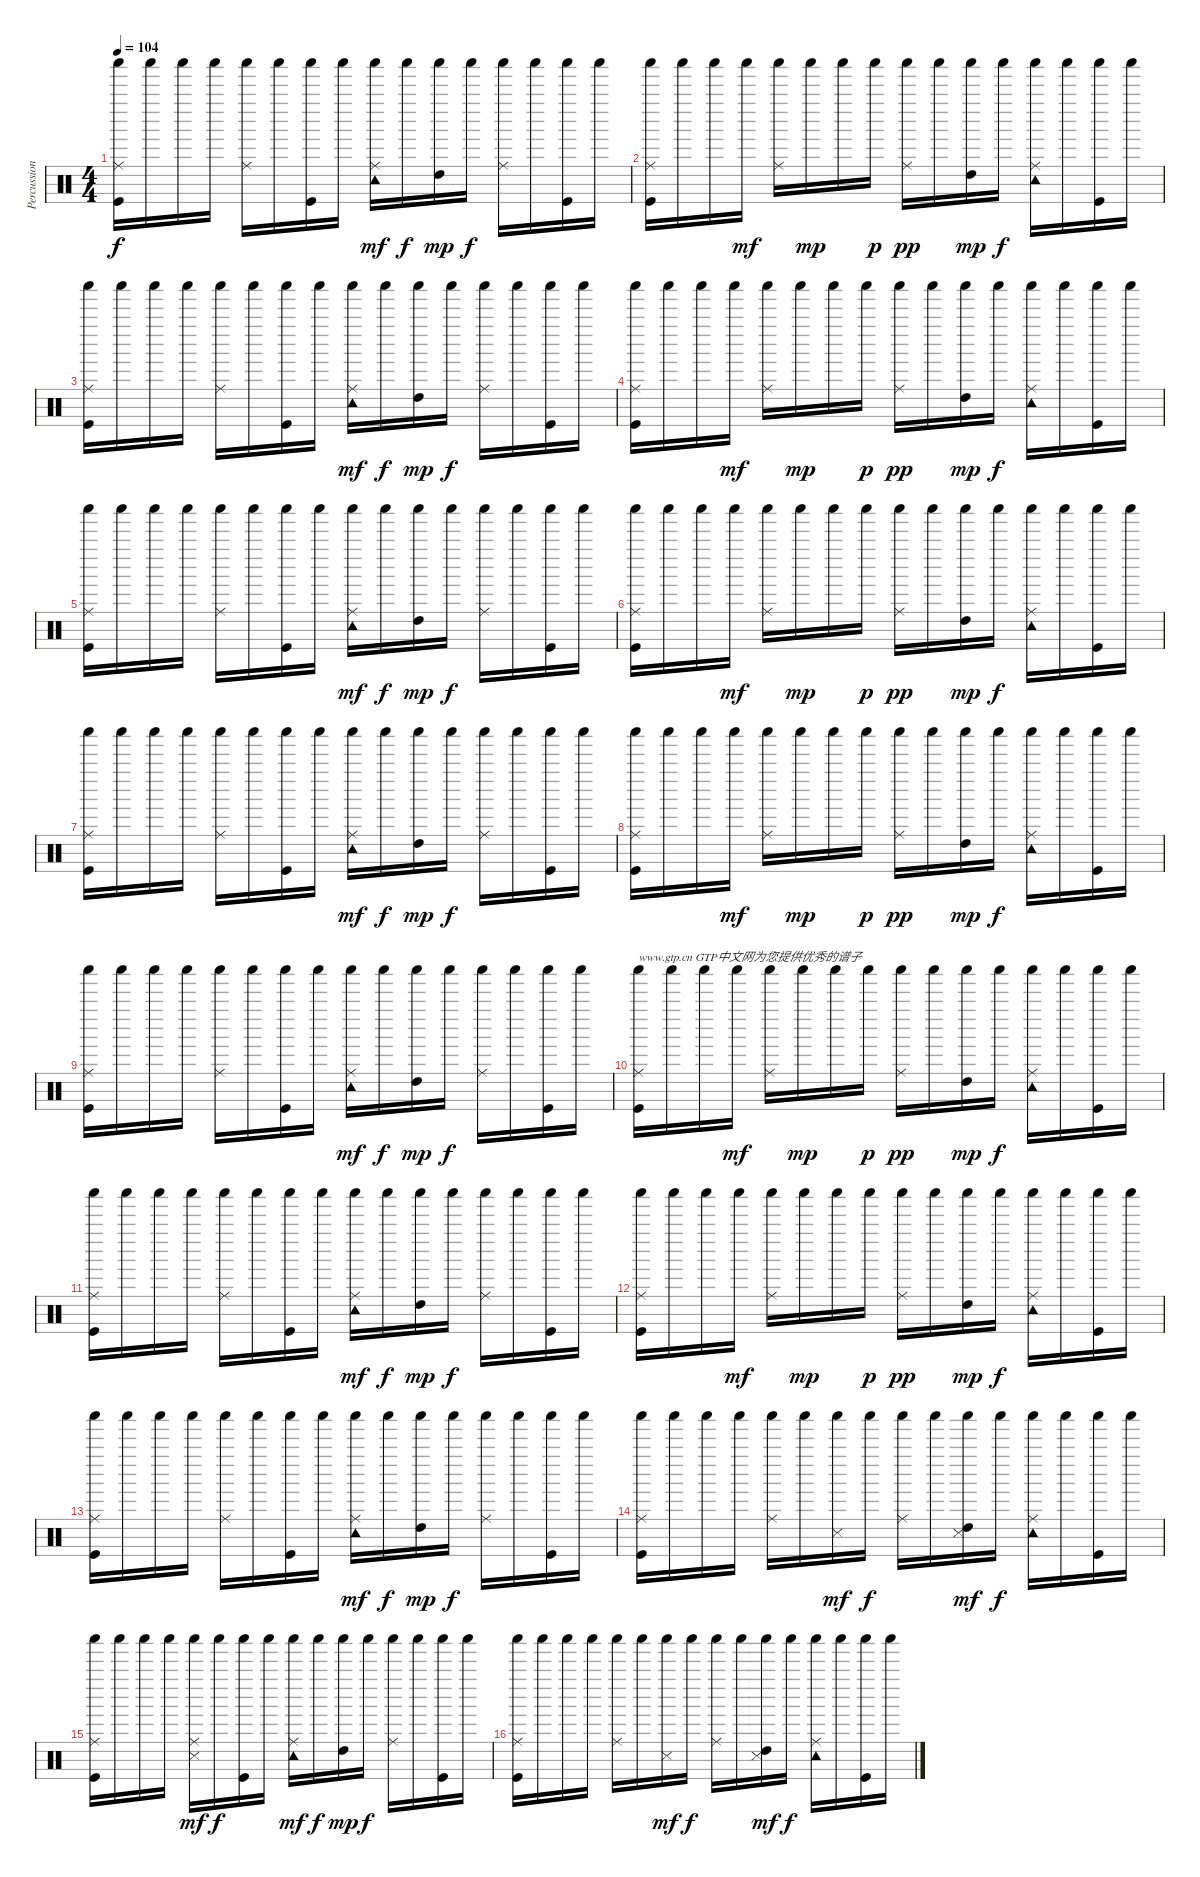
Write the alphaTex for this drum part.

\track ("Percussioni" "Percussion") {instrument percussion}
\staff {score}
\articulation defaults
\ts (4 4)
\tempo 104
\clef neutral
\ks c
("Ride (middle)" "Shaker (hit)" "Kick (hit)").16{dy f} "Shaker (hit)".16 "Shaker (hit)".16 "Shaker (hit)".16 ("Ride (middle)" "Shaker (hit)").16 "Shaker (hit)".16 ("Shaker (hit)" "Kick (hit)").16 "Shaker (hit)".16 ("Ride (middle)" "Shaker (hit)" "Tambourine (hit)").16{dy mf} "Shaker (hit)".16{dy f} ("High Tom (hit)" "Shaker (hit)").16{dy mp} "Shaker (hit)".16{dy f} ("Ride (middle)" "Shaker (hit)").16 "Shaker (hit)".16 ("Shaker (hit)" "Kick (hit)").16 "Shaker (hit)".16 |
("Ride (middle)" "Shaker (hit)" "Kick (hit)").16 "Shaker (hit)".16 "Shaker (hit)".16 "Shaker (hit)".16{dy mf} ("Ride (middle)" "Shaker (hit)").16 "Shaker (hit)".16{dy mp} "Shaker (hit)".16 "Shaker (hit)".16{dy p} ("Ride (middle)" "Shaker (hit)").16{dy pp} "Shaker (hit)".16 ("High Tom (hit)" "Shaker (hit)").16{dy mp} "Shaker (hit)".16{dy f} ("Ride (middle)" "Shaker (hit)" "Tambourine (hit)").16 "Shaker (hit)".16 ("Shaker (hit)" "Kick (hit)").16 "Shaker (hit)".16 |
("Ride (middle)" "Shaker (hit)" "Kick (hit)").16 "Shaker (hit)".16 "Shaker (hit)".16 "Shaker (hit)".16 ("Ride (middle)" "Shaker (hit)").16 "Shaker (hit)".16 ("Shaker (hit)" "Kick (hit)").16 "Shaker (hit)".16 ("Ride (middle)" "Shaker (hit)" "Tambourine (hit)").16{dy mf} "Shaker (hit)".16{dy f} ("High Tom (hit)" "Shaker (hit)").16{dy mp} "Shaker (hit)".16{dy f} ("Ride (middle)" "Shaker (hit)").16 "Shaker (hit)".16 ("Shaker (hit)" "Kick (hit)").16 "Shaker (hit)".16 |
("Ride (middle)" "Shaker (hit)" "Kick (hit)").16 "Shaker (hit)".16 "Shaker (hit)".16 "Shaker (hit)".16{dy mf} ("Ride (middle)" "Shaker (hit)").16 "Shaker (hit)".16{dy mp} "Shaker (hit)".16 "Shaker (hit)".16{dy p} ("Ride (middle)" "Shaker (hit)").16{dy pp} "Shaker (hit)".16 ("High Tom (hit)" "Shaker (hit)").16{dy mp} "Shaker (hit)".16{dy f} ("Ride (middle)" "Shaker (hit)" "Tambourine (hit)").16 "Shaker (hit)".16 ("Shaker (hit)" "Kick (hit)").16 "Shaker (hit)".16 |
("Ride (middle)" "Shaker (hit)" "Kick (hit)").16 "Shaker (hit)".16 "Shaker (hit)".16 "Shaker (hit)".16 ("Ride (middle)" "Shaker (hit)").16 "Shaker (hit)".16 ("Shaker (hit)" "Kick (hit)").16 "Shaker (hit)".16 ("Ride (middle)" "Shaker (hit)" "Tambourine (hit)").16{dy mf} "Shaker (hit)".16{dy f} ("High Tom (hit)" "Shaker (hit)").16{dy mp} "Shaker (hit)".16{dy f} ("Ride (middle)" "Shaker (hit)").16 "Shaker (hit)".16 ("Shaker (hit)" "Kick (hit)").16 "Shaker (hit)".16 |
("Ride (middle)" "Shaker (hit)" "Kick (hit)").16 "Shaker (hit)".16 "Shaker (hit)".16 "Shaker (hit)".16{dy mf} ("Ride (middle)" "Shaker (hit)").16 "Shaker (hit)".16{dy mp} "Shaker (hit)".16 "Shaker (hit)".16{dy p} ("Ride (middle)" "Shaker (hit)").16{dy pp} "Shaker (hit)".16 ("High Tom (hit)" "Shaker (hit)").16{dy mp} "Shaker (hit)".16{dy f} ("Ride (middle)" "Shaker (hit)" "Tambourine (hit)").16 "Shaker (hit)".16 ("Shaker (hit)" "Kick (hit)").16 "Shaker (hit)".16 |
("Ride (middle)" "Shaker (hit)" "Kick (hit)").16 "Shaker (hit)".16 "Shaker (hit)".16 "Shaker (hit)".16 ("Ride (middle)" "Shaker (hit)").16 "Shaker (hit)".16 ("Shaker (hit)" "Kick (hit)").16 "Shaker (hit)".16 ("Ride (middle)" "Shaker (hit)" "Tambourine (hit)").16{dy mf} "Shaker (hit)".16{dy f} ("High Tom (hit)" "Shaker (hit)").16{dy mp} "Shaker (hit)".16{dy f} ("Ride (middle)" "Shaker (hit)").16 "Shaker (hit)".16 ("Shaker (hit)" "Kick (hit)").16 "Shaker (hit)".16 |
("Ride (middle)" "Shaker (hit)" "Kick (hit)").16 "Shaker (hit)".16 "Shaker (hit)".16 "Shaker (hit)".16{dy mf} ("Ride (middle)" "Shaker (hit)").16 "Shaker (hit)".16{dy mp} "Shaker (hit)".16 "Shaker (hit)".16{dy p} ("Ride (middle)" "Shaker (hit)").16{dy pp} "Shaker (hit)".16 ("High Tom (hit)" "Shaker (hit)").16{dy mp} "Shaker (hit)".16{dy f} ("Ride (middle)" "Shaker (hit)" "Tambourine (hit)").16 "Shaker (hit)".16 ("Shaker (hit)" "Kick (hit)").16 "Shaker (hit)".16 |
("Ride (middle)" "Shaker (hit)" "Kick (hit)").16 "Shaker (hit)".16 "Shaker (hit)".16 "Shaker (hit)".16 ("Ride (middle)" "Shaker (hit)").16 "Shaker (hit)".16 ("Shaker (hit)" "Kick (hit)").16 "Shaker (hit)".16 ("Ride (middle)" "Shaker (hit)" "Tambourine (hit)").16{dy mf} "Shaker (hit)".16{dy f} ("High Tom (hit)" "Shaker (hit)").16{dy mp} "Shaker (hit)".16{dy f} ("Ride (middle)" "Shaker (hit)").16 "Shaker (hit)".16 ("Shaker (hit)" "Kick (hit)").16 "Shaker (hit)".16 |
("Ride (middle)" "Shaker (hit)" "Kick (hit)").16{txt "www.gtp.cn GTP中文网为您提供优秀的谱子"} "Shaker (hit)".16 "Shaker (hit)".16 "Shaker (hit)".16{dy mf} ("Ride (middle)" "Shaker (hit)").16 "Shaker (hit)".16{dy mp} "Shaker (hit)".16 "Shaker (hit)".16{dy p} ("Ride (middle)" "Shaker (hit)").16{dy pp} "Shaker (hit)".16 ("High Tom (hit)" "Shaker (hit)").16{dy mp} "Shaker (hit)".16{dy f} ("Ride (middle)" "Shaker (hit)" "Tambourine (hit)").16 "Shaker (hit)".16 ("Shaker (hit)" "Kick (hit)").16 "Shaker (hit)".16 |
("Ride (middle)" "Shaker (hit)" "Kick (hit)").16 "Shaker (hit)".16 "Shaker (hit)".16 "Shaker (hit)".16 ("Ride (middle)" "Shaker (hit)").16 "Shaker (hit)".16 ("Shaker (hit)" "Kick (hit)").16 "Shaker (hit)".16 ("Ride (middle)" "Shaker (hit)" "Tambourine (hit)").16{dy mf} "Shaker (hit)".16{dy f} ("High Tom (hit)" "Shaker (hit)").16{dy mp} "Shaker (hit)".16{dy f} ("Ride (middle)" "Shaker (hit)").16 "Shaker (hit)".16 ("Shaker (hit)" "Kick (hit)").16 "Shaker (hit)".16 |
("Ride (middle)" "Shaker (hit)" "Kick (hit)").16 "Shaker (hit)".16 "Shaker (hit)".16 "Shaker (hit)".16{dy mf} ("Ride (middle)" "Shaker (hit)").16 "Shaker (hit)".16{dy mp} "Shaker (hit)".16 "Shaker (hit)".16{dy p} ("Ride (middle)" "Shaker (hit)").16{dy pp} "Shaker (hit)".16 ("High Tom (hit)" "Shaker (hit)").16{dy mp} "Shaker (hit)".16{dy f} ("Ride (middle)" "Shaker (hit)" "Tambourine (hit)").16 "Shaker (hit)".16 ("Shaker (hit)" "Kick (hit)").16 "Shaker (hit)".16 |
("Ride (middle)" "Shaker (hit)" "Kick (hit)").16 "Shaker (hit)".16 "Shaker (hit)".16 "Shaker (hit)".16 ("Ride (middle)" "Shaker (hit)").16 "Shaker (hit)".16 ("Shaker (hit)" "Kick (hit)").16 "Shaker (hit)".16 ("Ride (middle)" "Shaker (hit)" "Tambourine (hit)").16{dy mf} "Shaker (hit)".16{dy f} ("High Tom (hit)" "Shaker (hit)").16{dy mp} "Shaker (hit)".16{dy f} ("Ride (middle)" "Shaker (hit)").16 "Shaker (hit)".16 ("Shaker (hit)" "Kick (hit)").16 "Shaker (hit)".16 |
("Ride (middle)" "Shaker (hit)" "Kick (hit)").16 "Shaker (hit)".16 "Shaker (hit)".16 "Shaker (hit)".16 ("Ride (middle)" "Shaker (hit)").16 "Shaker (hit)".16 ("Shaker (hit)" "Snare (side stick) 3").16{dy mf} "Shaker (hit)".16{dy f} ("Ride (middle)" "Shaker (hit)").16 "Shaker (hit)".16 ("High Tom (hit)" "Shaker (hit)" "Snare (side stick) 3").16{dy mf} "Shaker (hit)".16{dy f} ("Ride (middle)" "Shaker (hit)" "Tambourine (hit)").16 "Shaker (hit)".16 ("Shaker (hit)" "Kick (hit)").16 "Shaker (hit)".16 |
("Ride (middle)" "Shaker (hit)" "Kick (hit)").16 "Shaker (hit)".16 "Shaker (hit)".16 "Shaker (hit)".16 ("Ride (middle)" "Shaker (hit)" "Snare (side stick) 3").16{dy mf} "Shaker (hit)".16{dy f} ("Shaker (hit)" "Kick (hit)").16 "Shaker (hit)".16 ("Ride (middle)" "Shaker (hit)" "Tambourine (hit)").16{dy mf} "Shaker (hit)".16{dy f} ("High Tom (hit)" "Shaker (hit)").16{dy mp} "Shaker (hit)".16{dy f} ("Ride (middle)" "Shaker (hit)").16 "Shaker (hit)".16 ("Shaker (hit)" "Kick (hit)").16 "Shaker (hit)".16 |
("Ride (middle)" "Shaker (hit)" "Kick (hit)").16 "Shaker (hit)".16 "Shaker (hit)".16 "Shaker (hit)".16 ("Ride (middle)" "Shaker (hit)").16 "Shaker (hit)".16 ("Shaker (hit)" "Snare (side stick) 3").16{dy mf} "Shaker (hit)".16{dy f} ("Ride (middle)" "Shaker (hit)").16 "Shaker (hit)".16 ("High Tom (hit)" "Shaker (hit)" "Snare (side stick) 3").16{dy mf} "Shaker (hit)".16{dy f} ("Ride (middle)" "Shaker (hit)" "Tambourine (hit)").16 "Shaker (hit)".16 ("Shaker (hit)" "Kick (hit)").16 "Shaker (hit)".16
